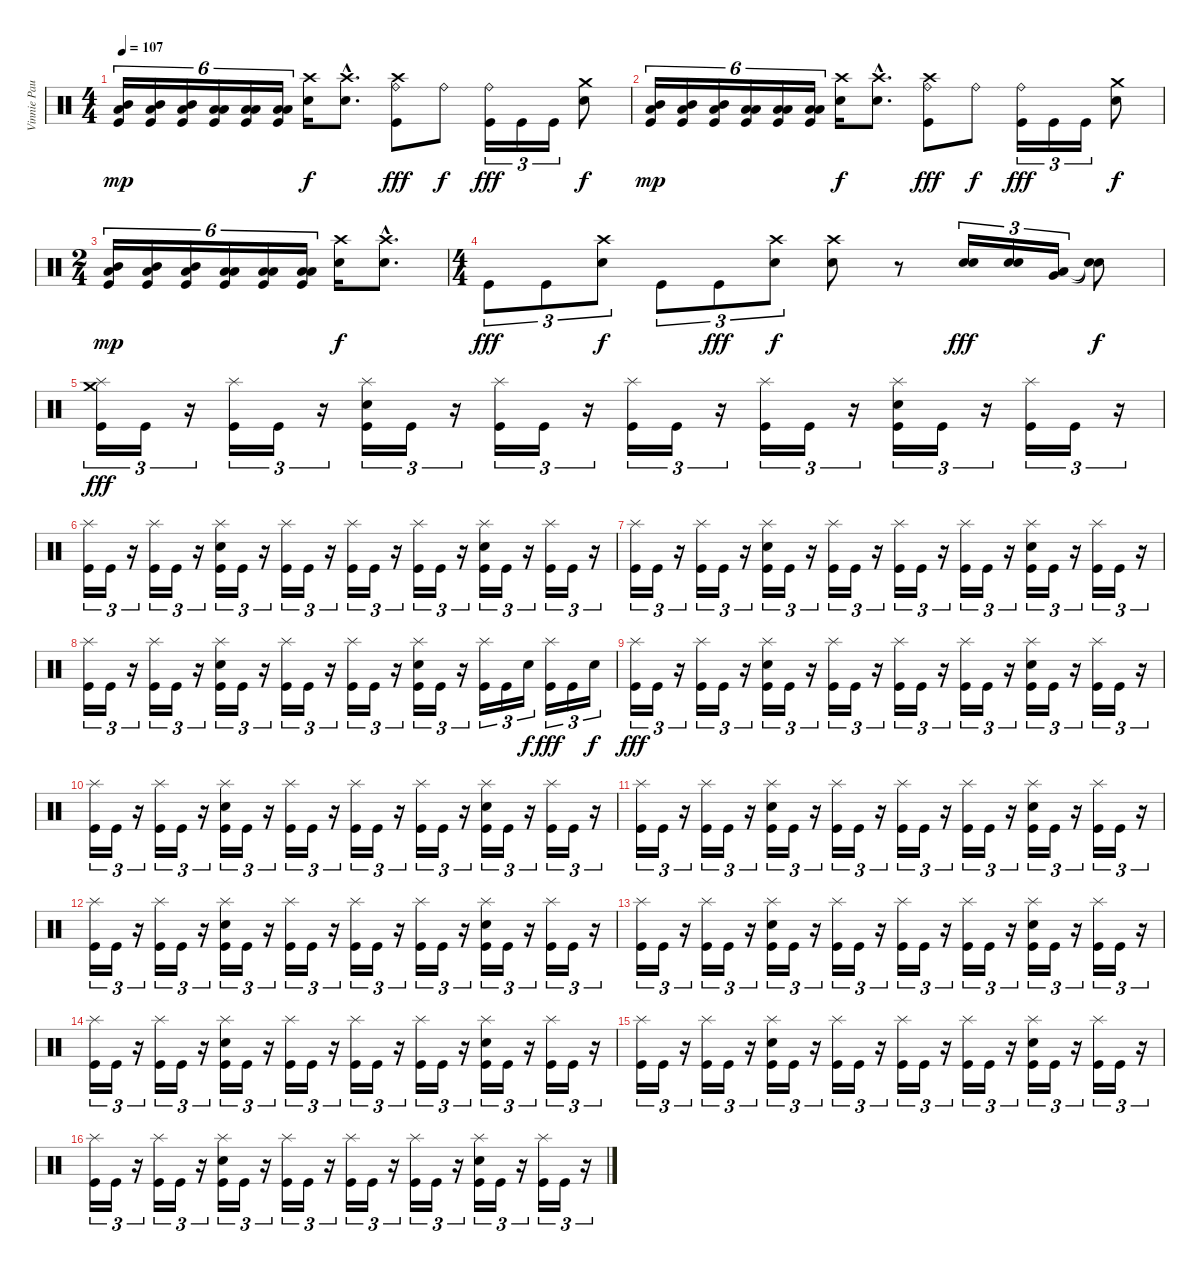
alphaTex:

\track ("Vinnie Paul" "Vinnie Pau") {instrument percussion}
\staff {score}
\articulation defaults
\ts (4 4)
\tempo 107
\clef neutral
\ks c
("Kick (hit)" "Mid Tom (hit)" "Low Tom (hit)").16{tu (6 4) dy mp} ("Kick (hit)" "Mid Tom (hit)" "Low Tom (hit)").16{tu (6 4)} ("Kick (hit)" "Mid Tom (hit)" "Low Tom (hit)").16{tu (6 4)} ("Kick (hit)" "Low Tom (hit)" "Low Tom (hit)").16{tu (6 4)} ("Kick (hit)" "Low Tom (hit)" "Low Tom (hit)").16{tu (6 4)} ("Kick (hit)" "Low Tom (hit)" "Low Tom (hit)").16{tu (6 4)} ("Crash high (hit)" "Electric Snare (hit)").16{dy f} ("Crash high (hit)"{hac} "Electric Snare (hit)"{hac}).8{d} ("Crash high (hit)" "Ride (bell)" "Kick (hit)").8{dy fff} "Ride (bell)".8{dy f} ("Ride (bell)" "Kick (hit)").16{tu (3 2) dy fff} "Kick (hit)".16{tu (3 2)} "Kick (hit)".16{tu (3 2)} ("Crash medium (hit)" "Electric Snare (hit)").8{dy f} |
("Kick (hit)" "Mid Tom (hit)" "Low Tom (hit)").16{tu (6 4) dy mp} ("Kick (hit)" "Mid Tom (hit)" "Low Tom (hit)").16{tu (6 4)} ("Kick (hit)" "Mid Tom (hit)" "Low Tom (hit)").16{tu (6 4)} ("Kick (hit)" "Low Tom (hit)" "Low Tom (hit)").16{tu (6 4)} ("Kick (hit)" "Low Tom (hit)" "Low Tom (hit)").16{tu (6 4)} ("Kick (hit)" "Low Tom (hit)" "Low Tom (hit)").16{tu (6 4)} ("Crash high (hit)" "Electric Snare (hit)").16{dy f} ("Crash high (hit)"{hac} "Electric Snare (hit)"{hac}).8{d} ("Crash high (hit)" "Ride (bell)" "Kick (hit)").8{dy fff} "Ride (bell)".8{dy f} ("Ride (bell)" "Kick (hit)").16{tu (3 2) dy fff} "Kick (hit)".16{tu (3 2)} "Kick (hit)".16{tu (3 2)} ("Crash medium (hit)" "Electric Snare (hit)").8{dy f} |
\ts (2 4)
("Kick (hit)" "Mid Tom (hit)" "Low Tom (hit)").16{tu (6 4) dy mp} ("Kick (hit)" "Mid Tom (hit)" "Low Tom (hit)").16{tu (6 4)} ("Kick (hit)" "Mid Tom (hit)" "Low Tom (hit)").16{tu (6 4)} ("Kick (hit)" "Low Tom (hit)" "Low Tom (hit)").16{tu (6 4)} ("Kick (hit)" "Low Tom (hit)" "Low Tom (hit)").16{tu (6 4)} ("Kick (hit)" "Low Tom (hit)" "Low Tom (hit)").16{tu (6 4)} ("Crash high (hit)" "Electric Snare (hit)").16{dy f} ("Crash high (hit)"{hac} "Electric Snare (hit)"{hac}).8{d} |
\ts (4 4)
"Kick (hit)".8{tu (3 2) dy fff} "Kick (hit)".8{tu (3 2)} ("Crash high (hit)" "Electric Snare (hit)").8{tu (3 2) dy f} "Kick (hit)".8{tu (3 2)} "Kick (hit)".8{tu (3 2) dy fff} ("Crash high (hit)" "Electric Snare (hit)").8{tu (3 2) dy f} ("Crash high (hit)" "Electric Snare (hit)").8 r.8 ("Electric Snare (hit)" "Electric Snare (hit)").16{tu (3 2) dy fff} ("Electric Snare (hit)" "Electric Snare (hit)").16{tu (3 2)} ("Low Tom (hit)" "Very Low Tom (hit)").16{tu (3 2)} ("Snare (hit)"{t} "Snare (hit)"{t}).8{dy f} |
("Splash (hit)" "Crash medium (hit)" "Kick (hit)").16{tu (3 2) dy fff} "Kick (hit)".16{tu (3 2)} r.16{tu (3 2)} ("Splash (hit)" "Kick (hit)").16{tu (3 2)} "Kick (hit)".16{tu (3 2)} r.16{tu (3 2)} ("Splash (hit)" "Kick (hit)" "Electric Snare (hit)").16{tu (3 2)} "Kick (hit)".16{tu (3 2)} r.16{tu (3 2)} ("Splash (hit)" "Kick (hit)").16{tu (3 2)} "Kick (hit)".16{tu (3 2)} r.16{tu (3 2)} ("Splash (hit)" "Kick (hit)").16{tu (3 2)} "Kick (hit)".16{tu (3 2)} r.16{tu (3 2)} ("Splash (hit)" "Kick (hit)").16{tu (3 2)} "Kick (hit)".16{tu (3 2)} r.16{tu (3 2)} ("Splash (hit)" "Kick (hit)" "Electric Snare (hit)").16{tu (3 2)} "Kick (hit)".16{tu (3 2)} r.16{tu (3 2)} ("Splash (hit)" "Kick (hit)").16{tu (3 2)} "Kick (hit)".16{tu (3 2)} r.16{tu (3 2)} |
("Splash (hit)" "Kick (hit)").16{tu (3 2)} "Kick (hit)".16{tu (3 2)} r.16{tu (3 2)} ("Splash (hit)" "Kick (hit)").16{tu (3 2)} "Kick (hit)".16{tu (3 2)} r.16{tu (3 2)} ("Splash (hit)" "Kick (hit)" "Electric Snare (hit)").16{tu (3 2)} "Kick (hit)".16{tu (3 2)} r.16{tu (3 2)} ("Splash (hit)" "Kick (hit)").16{tu (3 2)} "Kick (hit)".16{tu (3 2)} r.16{tu (3 2)} ("Splash (hit)" "Kick (hit)").16{tu (3 2)} "Kick (hit)".16{tu (3 2)} r.16{tu (3 2)} ("Splash (hit)" "Kick (hit)").16{tu (3 2)} "Kick (hit)".16{tu (3 2)} r.16{tu (3 2)} ("Splash (hit)" "Kick (hit)" "Electric Snare (hit)").16{tu (3 2)} "Kick (hit)".16{tu (3 2)} r.16{tu (3 2)} ("Splash (hit)" "Kick (hit)").16{tu (3 2)} "Kick (hit)".16{tu (3 2)} r.16{tu (3 2)} |
("Splash (hit)" "Kick (hit)").16{tu (3 2)} "Kick (hit)".16{tu (3 2)} r.16{tu (3 2)} ("Splash (hit)" "Kick (hit)").16{tu (3 2)} "Kick (hit)".16{tu (3 2)} r.16{tu (3 2)} ("Splash (hit)" "Kick (hit)" "Electric Snare (hit)").16{tu (3 2)} "Kick (hit)".16{tu (3 2)} r.16{tu (3 2)} ("Splash (hit)" "Kick (hit)").16{tu (3 2)} "Kick (hit)".16{tu (3 2)} r.16{tu (3 2)} ("Splash (hit)" "Kick (hit)").16{tu (3 2)} "Kick (hit)".16{tu (3 2)} r.16{tu (3 2)} ("Splash (hit)" "Kick (hit)").16{tu (3 2)} "Kick (hit)".16{tu (3 2)} r.16{tu (3 2)} ("Splash (hit)" "Kick (hit)" "Electric Snare (hit)").16{tu (3 2)} "Kick (hit)".16{tu (3 2)} r.16{tu (3 2)} ("Splash (hit)" "Kick (hit)").16{tu (3 2)} "Kick (hit)".16{tu (3 2)} r.16{tu (3 2)} |
("Splash (hit)" "Kick (hit)").16{tu (3 2)} "Kick (hit)".16{tu (3 2)} r.16{tu (3 2)} ("Splash (hit)" "Kick (hit)").16{tu (3 2)} "Kick (hit)".16{tu (3 2)} r.16{tu (3 2)} ("Splash (hit)" "Kick (hit)" "Electric Snare (hit)").16{tu (3 2)} "Kick (hit)".16{tu (3 2)} r.16{tu (3 2)} ("Splash (hit)" "Kick (hit)").16{tu (3 2)} "Kick (hit)".16{tu (3 2)} r.16{tu (3 2)} ("Splash (hit)" "Kick (hit)").16{tu (3 2)} "Kick (hit)".16{tu (3 2)} r.16{tu (3 2)} ("Splash (hit)" "Kick (hit)" "Electric Snare (hit)").16{tu (3 2)} "Kick (hit)".16{tu (3 2)} r.16{tu (3 2)} ("Splash (hit)" "Kick (hit)").16{tu (3 2)} "Kick (hit)".16{tu (3 2)} "Electric Snare (hit)".16{tu (3 2) dy f} ("Splash (hit)" "Kick (hit)").16{tu (3 2) dy fff} "Kick (hit)".16{tu (3 2)} "Electric Snare (hit)".16{tu (3 2) dy f} |
("Splash (hit)" "Kick (hit)").16{tu (3 2) dy fff} "Kick (hit)".16{tu (3 2)} r.16{tu (3 2)} ("Splash (hit)" "Kick (hit)").16{tu (3 2)} "Kick (hit)".16{tu (3 2)} r.16{tu (3 2)} ("Splash (hit)" "Kick (hit)" "Electric Snare (hit)").16{tu (3 2)} "Kick (hit)".16{tu (3 2)} r.16{tu (3 2)} ("Splash (hit)" "Kick (hit)").16{tu (3 2)} "Kick (hit)".16{tu (3 2)} r.16{tu (3 2)} ("Splash (hit)" "Kick (hit)").16{tu (3 2)} "Kick (hit)".16{tu (3 2)} r.16{tu (3 2)} ("Splash (hit)" "Kick (hit)").16{tu (3 2)} "Kick (hit)".16{tu (3 2)} r.16{tu (3 2)} ("Splash (hit)" "Kick (hit)" "Electric Snare (hit)").16{tu (3 2)} "Kick (hit)".16{tu (3 2)} r.16{tu (3 2)} ("Splash (hit)" "Kick (hit)").16{tu (3 2)} "Kick (hit)".16{tu (3 2)} r.16{tu (3 2)} |
("Splash (hit)" "Kick (hit)").16{tu (3 2)} "Kick (hit)".16{tu (3 2)} r.16{tu (3 2)} ("Splash (hit)" "Kick (hit)").16{tu (3 2)} "Kick (hit)".16{tu (3 2)} r.16{tu (3 2)} ("Splash (hit)" "Kick (hit)" "Electric Snare (hit)").16{tu (3 2)} "Kick (hit)".16{tu (3 2)} r.16{tu (3 2)} ("Splash (hit)" "Kick (hit)").16{tu (3 2)} "Kick (hit)".16{tu (3 2)} r.16{tu (3 2)} ("Splash (hit)" "Kick (hit)").16{tu (3 2)} "Kick (hit)".16{tu (3 2)} r.16{tu (3 2)} ("Splash (hit)" "Kick (hit)").16{tu (3 2)} "Kick (hit)".16{tu (3 2)} r.16{tu (3 2)} ("Splash (hit)" "Kick (hit)" "Electric Snare (hit)").16{tu (3 2)} "Kick (hit)".16{tu (3 2)} r.16{tu (3 2)} ("Splash (hit)" "Kick (hit)").16{tu (3 2)} "Kick (hit)".16{tu (3 2)} r.16{tu (3 2)} |
("Splash (hit)" "Kick (hit)").16{tu (3 2)} "Kick (hit)".16{tu (3 2)} r.16{tu (3 2)} ("Splash (hit)" "Kick (hit)").16{tu (3 2)} "Kick (hit)".16{tu (3 2)} r.16{tu (3 2)} ("Splash (hit)" "Kick (hit)" "Electric Snare (hit)").16{tu (3 2)} "Kick (hit)".16{tu (3 2)} r.16{tu (3 2)} ("Splash (hit)" "Kick (hit)").16{tu (3 2)} "Kick (hit)".16{tu (3 2)} r.16{tu (3 2)} ("Splash (hit)" "Kick (hit)").16{tu (3 2)} "Kick (hit)".16{tu (3 2)} r.16{tu (3 2)} ("Splash (hit)" "Kick (hit)").16{tu (3 2)} "Kick (hit)".16{tu (3 2)} r.16{tu (3 2)} ("Splash (hit)" "Kick (hit)" "Electric Snare (hit)").16{tu (3 2)} "Kick (hit)".16{tu (3 2)} r.16{tu (3 2)} ("Splash (hit)" "Kick (hit)").16{tu (3 2)} "Kick (hit)".16{tu (3 2)} r.16{tu (3 2)} |
("Splash (hit)" "Kick (hit)").16{tu (3 2)} "Kick (hit)".16{tu (3 2)} r.16{tu (3 2)} ("Splash (hit)" "Kick (hit)").16{tu (3 2)} "Kick (hit)".16{tu (3 2)} r.16{tu (3 2)} ("Splash (hit)" "Kick (hit)" "Electric Snare (hit)").16{tu (3 2)} "Kick (hit)".16{tu (3 2)} r.16{tu (3 2)} ("Splash (hit)" "Kick (hit)").16{tu (3 2)} "Kick (hit)".16{tu (3 2)} r.16{tu (3 2)} ("Splash (hit)" "Kick (hit)").16{tu (3 2)} "Kick (hit)".16{tu (3 2)} r.16{tu (3 2)} ("Splash (hit)" "Kick (hit)").16{tu (3 2)} "Kick (hit)".16{tu (3 2)} r.16{tu (3 2)} ("Splash (hit)" "Kick (hit)" "Electric Snare (hit)").16{tu (3 2)} "Kick (hit)".16{tu (3 2)} r.16{tu (3 2)} ("Splash (hit)" "Kick (hit)").16{tu (3 2)} "Kick (hit)".16{tu (3 2)} r.16{tu (3 2)} |
("Splash (hit)" "Kick (hit)").16{tu (3 2)} "Kick (hit)".16{tu (3 2)} r.16{tu (3 2)} ("Splash (hit)" "Kick (hit)").16{tu (3 2)} "Kick (hit)".16{tu (3 2)} r.16{tu (3 2)} ("Splash (hit)" "Kick (hit)" "Electric Snare (hit)").16{tu (3 2)} "Kick (hit)".16{tu (3 2)} r.16{tu (3 2)} ("Splash (hit)" "Kick (hit)").16{tu (3 2)} "Kick (hit)".16{tu (3 2)} r.16{tu (3 2)} ("Splash (hit)" "Kick (hit)").16{tu (3 2)} "Kick (hit)".16{tu (3 2)} r.16{tu (3 2)} ("Splash (hit)" "Kick (hit)").16{tu (3 2)} "Kick (hit)".16{tu (3 2)} r.16{tu (3 2)} ("Splash (hit)" "Kick (hit)" "Electric Snare (hit)").16{tu (3 2)} "Kick (hit)".16{tu (3 2)} r.16{tu (3 2)} ("Splash (hit)" "Kick (hit)").16{tu (3 2)} "Kick (hit)".16{tu (3 2)} r.16{tu (3 2)} |
("Splash (hit)" "Kick (hit)").16{tu (3 2)} "Kick (hit)".16{tu (3 2)} r.16{tu (3 2)} ("Splash (hit)" "Kick (hit)").16{tu (3 2)} "Kick (hit)".16{tu (3 2)} r.16{tu (3 2)} ("Splash (hit)" "Kick (hit)" "Electric Snare (hit)").16{tu (3 2)} "Kick (hit)".16{tu (3 2)} r.16{tu (3 2)} ("Splash (hit)" "Kick (hit)").16{tu (3 2)} "Kick (hit)".16{tu (3 2)} r.16{tu (3 2)} ("Splash (hit)" "Kick (hit)").16{tu (3 2)} "Kick (hit)".16{tu (3 2)} r.16{tu (3 2)} ("Splash (hit)" "Kick (hit)").16{tu (3 2)} "Kick (hit)".16{tu (3 2)} r.16{tu (3 2)} ("Splash (hit)" "Kick (hit)" "Electric Snare (hit)").16{tu (3 2)} "Kick (hit)".16{tu (3 2)} r.16{tu (3 2)} ("Splash (hit)" "Kick (hit)").16{tu (3 2)} "Kick (hit)".16{tu (3 2)} r.16{tu (3 2)} |
("Splash (hit)" "Kick (hit)").16{tu (3 2)} "Kick (hit)".16{tu (3 2)} r.16{tu (3 2)} ("Splash (hit)" "Kick (hit)").16{tu (3 2)} "Kick (hit)".16{tu (3 2)} r.16{tu (3 2)} ("Splash (hit)" "Kick (hit)" "Electric Snare (hit)").16{tu (3 2)} "Kick (hit)".16{tu (3 2)} r.16{tu (3 2)} ("Splash (hit)" "Kick (hit)").16{tu (3 2)} "Kick (hit)".16{tu (3 2)} r.16{tu (3 2)} ("Splash (hit)" "Kick (hit)").16{tu (3 2)} "Kick (hit)".16{tu (3 2)} r.16{tu (3 2)} ("Splash (hit)" "Kick (hit)").16{tu (3 2)} "Kick (hit)".16{tu (3 2)} r.16{tu (3 2)} ("Splash (hit)" "Kick (hit)" "Electric Snare (hit)").16{tu (3 2)} "Kick (hit)".16{tu (3 2)} r.16{tu (3 2)} ("Splash (hit)" "Kick (hit)").16{tu (3 2)} "Kick (hit)".16{tu (3 2)} r.16{tu (3 2)} |
("Splash (hit)" "Kick (hit)").16{tu (3 2)} "Kick (hit)".16{tu (3 2)} r.16{tu (3 2)} ("Splash (hit)" "Kick (hit)").16{tu (3 2)} "Kick (hit)".16{tu (3 2)} r.16{tu (3 2)} ("Splash (hit)" "Kick (hit)" "Electric Snare (hit)").16{tu (3 2)} "Kick (hit)".16{tu (3 2)} r.16{tu (3 2)} ("Splash (hit)" "Kick (hit)").16{tu (3 2)} "Kick (hit)".16{tu (3 2)} r.16{tu (3 2)} ("Splash (hit)" "Kick (hit)").16{tu (3 2)} "Kick (hit)".16{tu (3 2)} r.16{tu (3 2)} ("Splash (hit)" "Kick (hit)").16{tu (3 2)} "Kick (hit)".16{tu (3 2)} r.16{tu (3 2)} ("Splash (hit)" "Kick (hit)" "Electric Snare (hit)").16{tu (3 2)} "Kick (hit)".16{tu (3 2)} r.16{tu (3 2)} ("Splash (hit)" "Kick (hit)").16{tu (3 2)} "Kick (hit)".16{tu (3 2)} r.16{tu (3 2)}
